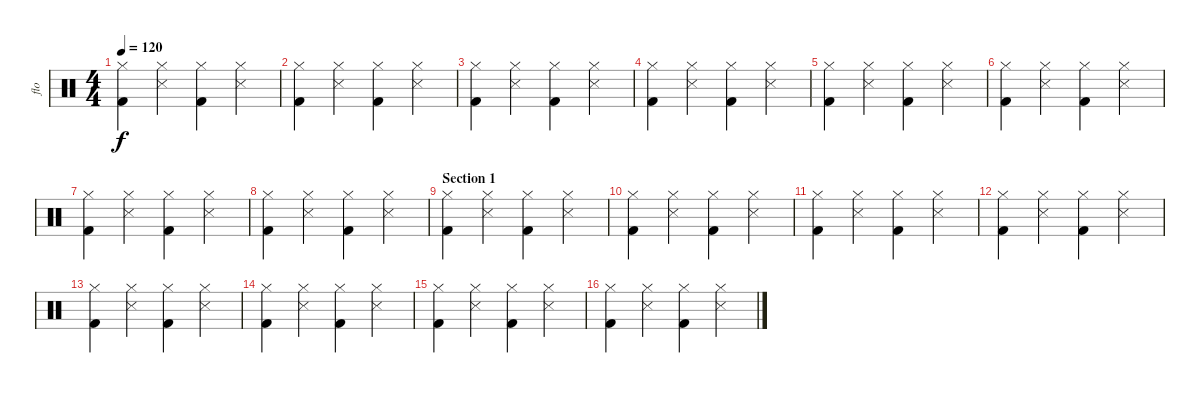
\track ("flo" "flo") {instrument percussion}
\staff {score}
\articulation defaults
\ts (4 4)
\tempo 120
\clef neutral
\ks c
("Kick (hit) 2" "Hi-Hat (closed)").4{dy f} ("Snare (side stick) 3" "Hi-Hat (closed)").4 ("Kick (hit) 2" "Hi-Hat (closed)").4 ("Snare (side stick) 3" "Hi-Hat (closed)").4 |
("Kick (hit) 2" "Hi-Hat (closed)").4 ("Snare (side stick) 3" "Hi-Hat (closed)").4 ("Kick (hit) 2" "Hi-Hat (closed)").4 ("Snare (side stick) 3" "Hi-Hat (closed)").4 |
("Kick (hit) 2" "Hi-Hat (closed)").4 ("Snare (side stick) 3" "Hi-Hat (closed)").4 ("Kick (hit) 2" "Hi-Hat (closed)").4 ("Snare (side stick) 3" "Hi-Hat (closed)").4 |
("Kick (hit) 2" "Hi-Hat (closed)").4 ("Snare (side stick) 3" "Hi-Hat (closed)").4 ("Kick (hit) 2" "Hi-Hat (closed)").4 ("Snare (side stick) 3" "Hi-Hat (closed)").4 |
("Kick (hit) 2" "Hi-Hat (closed)").4 ("Snare (side stick) 3" "Hi-Hat (closed)").4 ("Kick (hit) 2" "Hi-Hat (closed)").4 ("Snare (side stick) 3" "Hi-Hat (closed)").4 |
("Kick (hit) 2" "Hi-Hat (closed)").4 ("Snare (side stick) 3" "Hi-Hat (closed)").4 ("Kick (hit) 2" "Hi-Hat (closed)").4 ("Snare (side stick) 3" "Hi-Hat (closed)").4 |
("Kick (hit) 2" "Hi-Hat (closed)").4 ("Snare (side stick) 3" "Hi-Hat (closed)").4 ("Kick (hit) 2" "Hi-Hat (closed)").4 ("Snare (side stick) 3" "Hi-Hat (closed)").4 |
("Kick (hit) 2" "Hi-Hat (closed)").4 ("Snare (side stick) 3" "Hi-Hat (closed)").4 ("Kick (hit) 2" "Hi-Hat (closed)").4 ("Snare (side stick) 3" "Hi-Hat (closed)").4 |
\section ("" "Section 1")
("Kick (hit) 2" "Hi-Hat (closed)").4 ("Snare (side stick) 3" "Hi-Hat (closed)").4 ("Kick (hit) 2" "Hi-Hat (closed)").4 ("Snare (side stick) 3" "Hi-Hat (closed)").4 |
("Kick (hit) 2" "Hi-Hat (closed)").4 ("Snare (side stick) 3" "Hi-Hat (closed)").4 ("Kick (hit) 2" "Hi-Hat (closed)").4 ("Snare (side stick) 3" "Hi-Hat (closed)").4 |
("Kick (hit) 2" "Hi-Hat (closed)").4 ("Snare (side stick) 3" "Hi-Hat (closed)").4 ("Kick (hit) 2" "Hi-Hat (closed)").4 ("Snare (side stick) 3" "Hi-Hat (closed)").4 |
("Kick (hit) 2" "Hi-Hat (closed)").4 ("Snare (side stick) 3" "Hi-Hat (closed)").4 ("Kick (hit) 2" "Hi-Hat (closed)").4 ("Snare (side stick) 3" "Hi-Hat (closed)").4 |
("Kick (hit) 2" "Hi-Hat (closed)").4 ("Snare (side stick) 3" "Hi-Hat (closed)").4 ("Kick (hit) 2" "Hi-Hat (closed)").4 ("Snare (side stick) 3" "Hi-Hat (closed)").4 |
("Kick (hit) 2" "Hi-Hat (closed)").4 ("Snare (side stick) 3" "Hi-Hat (closed)").4 ("Kick (hit) 2" "Hi-Hat (closed)").4 ("Snare (side stick) 3" "Hi-Hat (closed)").4 |
("Kick (hit) 2" "Hi-Hat (closed)").4 ("Snare (side stick) 3" "Hi-Hat (closed)").4 ("Kick (hit) 2" "Hi-Hat (closed)").4 ("Snare (side stick) 3" "Hi-Hat (closed)").4 |
("Kick (hit) 2" "Hi-Hat (closed)").4 ("Snare (side stick) 3" "Hi-Hat (closed)").4 ("Kick (hit) 2" "Hi-Hat (closed)").4 ("Snare (side stick) 3" "Hi-Hat (closed)").4
